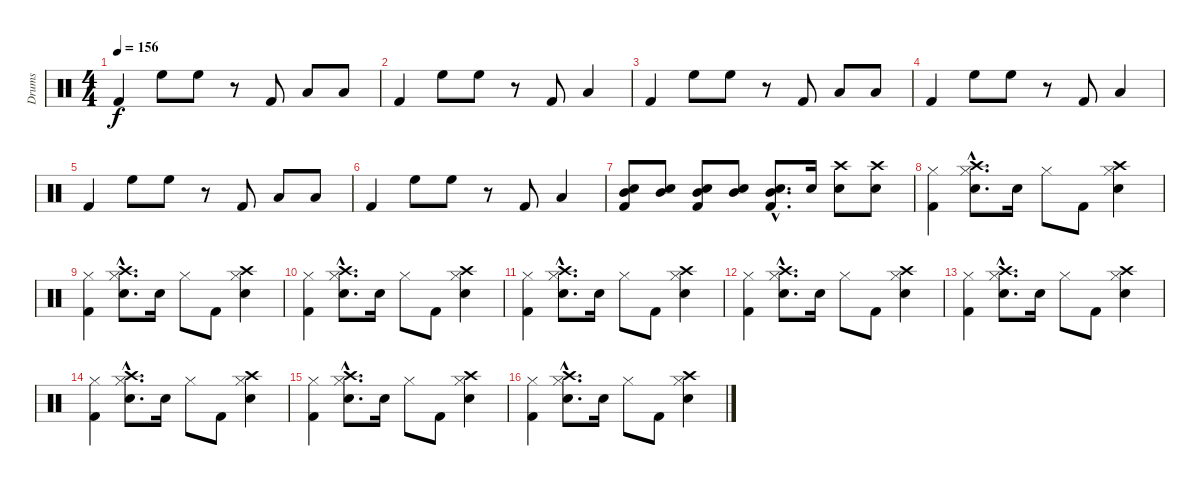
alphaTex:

\track ("Drums" "Drums") {instrument percussion}
\staff {score}
\articulation defaults
\ts (4 4)
\tempo 156
\clef neutral
\ks c "Kick (hit) 2".4{dy f} "High Floor Tom (hit)".8 "High Floor Tom (hit)".8
r.8 "Kick (hit) 2".8 "Low Tom (hit)".8 "Low Tom (hit)".8 |
"Kick (hit) 2".4 "High Floor Tom (hit)".8 "High Floor Tom (hit)".8 r.8 "Kick (hit) 2".8 "Low Tom (hit)".4 |
"Kick (hit) 2".4 "High Floor Tom (hit)".8 "High Floor Tom (hit)".8 r.8 "Kick (hit) 2".8 "Low Tom (hit)".8 "Low Tom (hit)".8 |
"Kick (hit) 2".4 "High Floor Tom (hit)".8 "High Floor Tom (hit)".8 r.8 "Kick (hit) 2".8 "Low Tom (hit)".4 |
"Kick (hit) 2".4 "High Floor Tom (hit)".8 "High Floor Tom (hit)".8 r.8 "Kick (hit) 2".8 "Low Tom (hit)".8 "Low Tom (hit)".8 |
"Kick (hit) 2".4 "High Floor Tom (hit)".8 "High Floor Tom (hit)".8 r.8 "Kick (hit) 2".8 "Low Tom (hit)".4 |
("Mid Tom (hit)" "Snare (hit) 2" "Kick (hit) 2").8 ("Mid Tom (hit)" "Snare (hit) 2").8 ("Mid Tom (hit)" "Snare (hit) 2" "Kick (hit) 2").8 ("Mid Tom (hit)" "Snare (hit) 2").8 ("Mid Tom (hit)"{hac} "Snare (hit) 2"{hac} "Kick (hit) 2"{hac}).8{d} "Snare (hit) 2".16 ("Crash high (hit)" "Snare (hit) 2").8 ("Crash high (hit)" "Snare (hit) 2").8 |
("Hi-Hat (closed)" "Kick (hit) 2").4 ("Crash high (hit)"{hac} "Hi-Hat (closed)"{hac} "Snare (hit) 2"{hac}).8{d} "Snare (hit) 2".16 "Hi-Hat (closed)".8 "Kick (hit) 2".8 ("Crash high (hit)" "Hi-Hat (closed)" "Snare (hit) 2").4 |
("Hi-Hat (closed)" "Kick (hit) 2").4 ("Crash high (hit)"{hac} "Hi-Hat (closed)"{hac} "Snare (hit) 2"{hac}).8{d} "Snare (hit) 2".16 "Hi-Hat (closed)".8 "Kick (hit) 2".8 ("Crash high (hit)" "Hi-Hat (closed)" "Snare (hit) 2").4 |
("Hi-Hat (closed)" "Kick (hit) 2").4 ("Crash high (hit)"{hac} "Hi-Hat (closed)"{hac} "Snare (hit) 2"{hac}).8{d} "Snare (hit) 2".16 "Hi-Hat (closed)".8 "Kick (hit) 2".8 ("Crash high (hit)" "Hi-Hat (closed)" "Snare (hit) 2").4 |
("Hi-Hat (closed)" "Kick (hit) 2").4 ("Crash high (hit)"{hac} "Hi-Hat (closed)"{hac} "Snare (hit) 2"{hac}).8{d} "Snare (hit) 2".16 "Hi-Hat (closed)".8 "Kick (hit) 2".8 ("Crash high (hit)" "Hi-Hat (closed)" "Snare (hit) 2").4 |
("Hi-Hat (closed)" "Kick (hit) 2").4 ("Crash high (hit)"{hac} "Hi-Hat (closed)"{hac} "Snare (hit) 2"{hac}).8{d} "Snare (hit) 2".16 "Hi-Hat (closed)".8 "Kick (hit) 2".8 ("Crash high (hit)" "Hi-Hat (closed)" "Snare (hit) 2").4 |
("Hi-Hat (closed)" "Kick (hit) 2").4 ("Crash high (hit)"{hac} "Hi-Hat (closed)"{hac} "Snare (hit) 2"{hac}).8{d} "Snare (hit) 2".16 "Hi-Hat (closed)".8 "Kick (hit) 2".8 ("Crash high (hit)" "Hi-Hat (closed)" "Snare (hit) 2").4 |
("Hi-Hat (closed)" "Kick (hit) 2").4 ("Crash high (hit)"{hac} "Hi-Hat (closed)"{hac} "Snare (hit) 2"{hac}).8{d} "Snare (hit) 2".16 "Hi-Hat (closed)".8 "Kick (hit) 2".8 ("Crash high (hit)" "Hi-Hat (closed)" "Snare (hit) 2").4 |
("Hi-Hat (closed)" "Kick (hit) 2").4 ("Crash high (hit)"{hac} "Hi-Hat (closed)"{hac} "Snare (hit) 2"{hac}).8{d} "Snare (hit) 2".16 "Hi-Hat (closed)".8 "Kick (hit) 2".8 ("Crash high (hit)" "Hi-Hat (closed)" "Snare (hit) 2").4 |
("Hi-Hat (closed)" "Kick (hit) 2").4 ("Crash high (hit)"{hac} "Hi-Hat (closed)"{hac} "Snare (hit) 2"{hac}).8{d} "Snare (hit) 2".16 "Hi-Hat (closed)".8 "Kick (hit) 2".8 ("Crash high (hit)" "Hi-Hat (closed)" "Snare (hit) 2").4
